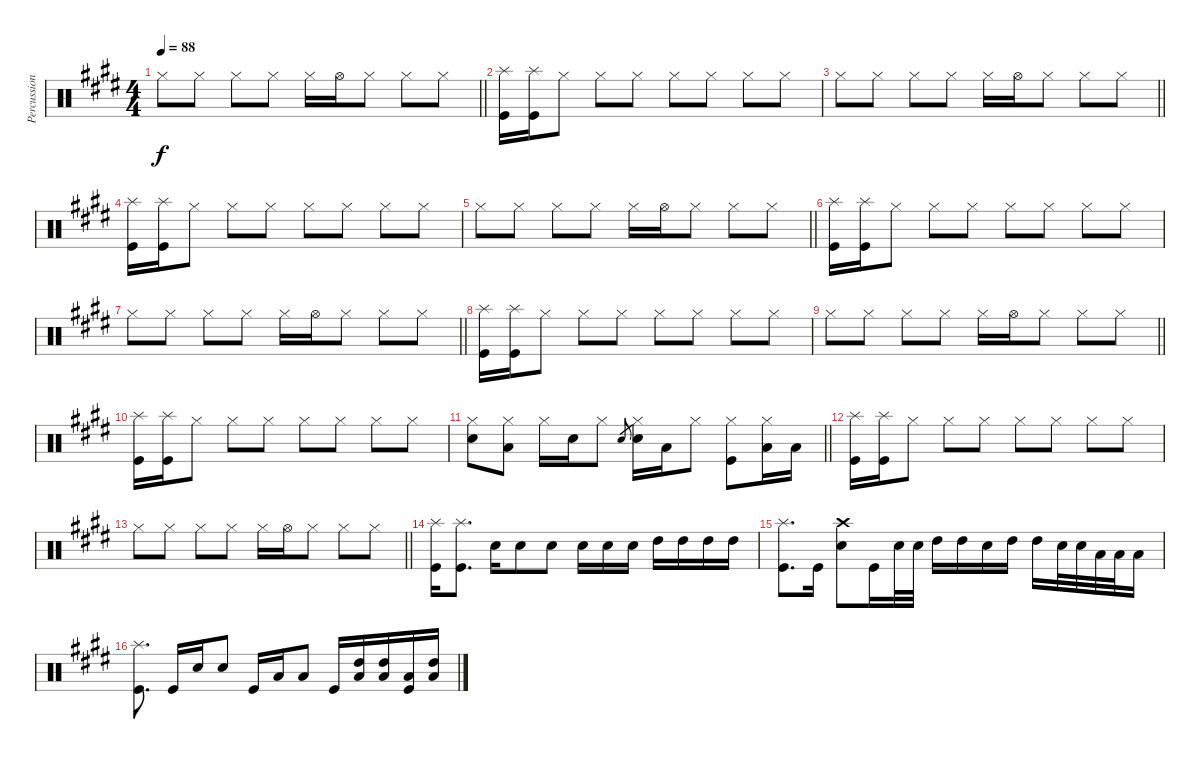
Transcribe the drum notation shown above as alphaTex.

\track ("Percussion" "Percussion") {instrument percussion}
\staff {score}
\articulation defaults
\ts (4 4)
\tempo 88
\clef neutral
\barLineRight lightlight
\ks e "Hi-Hat (closed)".8{dy f} "Hi-Hat (closed)".8 "Hi-Hat (closed)".8 "Hi-Hat (closed)".8 "Hi-Hat (closed)".16 "Hi-Hat (open)".16 "Hi-Hat (closed)".8 "Hi-Hat (closed)".8 "Hi-Hat (closed)".8
|
("Splash (hit)" "Kick (hit)").16 ("Splash (hit)" "Kick (hit)").16 "Hi-Hat (closed)".8 "Hi-Hat (closed)".8 "Hi-Hat (closed)".8 "Hi-Hat (closed)".8 "Hi-Hat (closed)".8 "Hi-Hat (closed)".8 "Hi-Hat (closed)".8 |
\barLineRight lightlight "Hi-Hat (closed)".8 "Hi-Hat (closed)".8 "Hi-Hat (closed)".8 "Hi-Hat (closed)".8 "Hi-Hat (closed)".16 "Hi-Hat (open)".16 "Hi-Hat (closed)".8 "Hi-Hat (closed)".8 "Hi-Hat (closed)".8
|
("Splash (hit)" "Kick (hit)").16 ("Splash (hit)" "Kick (hit)").16 "Hi-Hat (closed)".8 "Hi-Hat (closed)".8 "Hi-Hat (closed)".8 "Hi-Hat (closed)".8 "Hi-Hat (closed)".8 "Hi-Hat (closed)".8 "Hi-Hat (closed)".8 |
\barLineRight lightlight "Hi-Hat (closed)".8 "Hi-Hat (closed)".8 "Hi-Hat (closed)".8 "Hi-Hat (closed)".8 "Hi-Hat (closed)".16 "Hi-Hat (open)".16 "Hi-Hat (closed)".8 "Hi-Hat (closed)".8 "Hi-Hat (closed)".8
|
("Splash (hit)" "Kick (hit)").16 ("Splash (hit)" "Kick (hit)").16 "Hi-Hat (closed)".8 "Hi-Hat (closed)".8 "Hi-Hat (closed)".8 "Hi-Hat (closed)".8 "Hi-Hat (closed)".8 "Hi-Hat (closed)".8 "Hi-Hat (closed)".8 |
\barLineRight lightlight "Hi-Hat (closed)".8 "Hi-Hat (closed)".8 "Hi-Hat (closed)".8 "Hi-Hat (closed)".8 "Hi-Hat (closed)".16 "Hi-Hat (open)".16 "Hi-Hat (closed)".8 "Hi-Hat (closed)".8 "Hi-Hat (closed)".8
|
("Splash (hit)" "Kick (hit)").16 ("Splash (hit)" "Kick (hit)").16 "Hi-Hat (closed)".8 "Hi-Hat (closed)".8 "Hi-Hat (closed)".8 "Hi-Hat (closed)".8 "Hi-Hat (closed)".8 "Hi-Hat (closed)".8 "Hi-Hat (closed)".8 |
\barLineRight lightlight "Hi-Hat (closed)".8 "Hi-Hat (closed)".8 "Hi-Hat (closed)".8 "Hi-Hat (closed)".8 "Hi-Hat (closed)".16 "Hi-Hat (open)".16 "Hi-Hat (closed)".8 "Hi-Hat (closed)".8 "Hi-Hat (closed)".8
|
("Splash (hit)" "Kick (hit)").16 ("Splash (hit)" "Kick (hit)").16 "Hi-Hat (closed)".8 "Hi-Hat (closed)".8 "Hi-Hat (closed)".8 "Hi-Hat (closed)".8 "Hi-Hat (closed)".8 "Hi-Hat (closed)".8 "Hi-Hat (closed)".8 |
\barLineRight lightlight
("Hi-Hat (closed)" "Snare (hit) 2").8 ("Hi-Hat (closed)" "Low Tom (hit)").8 "Hi-Hat (closed)".16 "Snare (hit) 2".16 "Hi-Hat (closed)".8 "Snare (hit) 2".8{gr} ("Hi-Hat (closed)" "Snare (hit) 2").16 "Low Tom (hit)".16 "Hi-Hat (closed)".8 ("Hi-Hat (closed)" "Kick (hit)").8 ("Hi-Hat (closed)" "Low Tom (hit)").16 "Low Tom (hit)".16 |
("Splash (hit)" "Kick (hit)").16 ("Splash (hit)" "Kick (hit)").16 "Hi-Hat (closed)".8 "Hi-Hat (closed)".8 "Hi-Hat (closed)".8 "Hi-Hat (closed)".8 "Hi-Hat (closed)".8 "Hi-Hat (closed)".8 "Hi-Hat (closed)".8 |
\barLineRight lightlight "Hi-Hat (closed)".8 "Hi-Hat (closed)".8 "Hi-Hat (closed)".8 "Hi-Hat (closed)".8 "Hi-Hat (closed)".16 "Hi-Hat (open)".16 "Hi-Hat (closed)".8 "Hi-Hat (closed)".8 "Hi-Hat (closed)".8
|
("Splash (hit)" "Kick (hit)").16 ("Splash (hit)" "Kick (hit)").8{d} "Snare (hit) 2".16 "Snare (hit) 2".8 "Snare (hit) 2".8 "Snare (hit) 2".16 "Snare (hit) 2".16 "Snare (hit) 2".16 "High Tom (hit)".16 "High Tom (hit)".16 "High Tom (hit)".16 "High Tom (hit)".16 |
("Splash (hit)" "Kick (hit)").8{d} "Kick (hit)".16 ("Crash high (hit)" "Snare (hit) 2").8 "Kick (hit)".16 "Snare (hit) 2".32 "Snare (hit) 2".32 "High Tom (hit)".16 "High Tom (hit)".16 "Snare (hit) 2".16 "High Tom (hit)".16 "High Tom (hit)".16 "Snare (hit) 2".32 "Snare (hit) 2".32 "Low Tom (hit)".32 "Low Tom (hit)".32 "Low Tom (hit)".16 |
("Splash (hit)" "Kick (hit)").8{d beam split} "Kick (hit)".16{beam merge} "Snare (hit) 2".16 "Snare (hit) 2".8{beam split} "Kick (hit)".16{beam merge} "Low Tom (hit)".16 "Low Tom (hit)".8{beam split} "Kick (hit)".16{beam merge} ("Low Tom (hit)" "High Tom (hit)").16 ("Low Tom (hit)" "High Tom (hit)").16 ("Low Tom (hit)" "Kick (hit)").16 ("Low Tom (hit)" "High Tom (hit)").16
